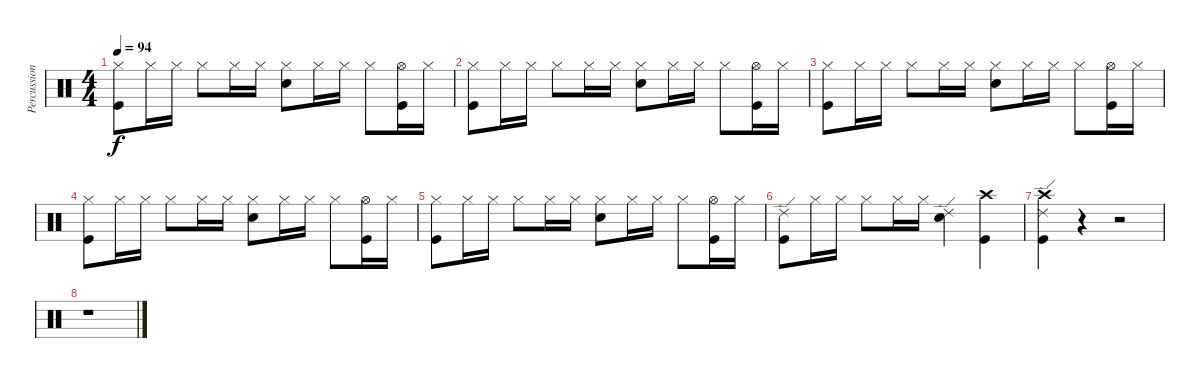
\track ("Percussions" "Percussion") {instrument percussion}
\staff {score}
\articulation defaults
\ts (4 4)
\tempo 94
\clef neutral
\ks c
("Hi-Hat (closed)" "Kick (hit)").8{dy f} "Hi-Hat (closed)".16 "Hi-Hat (closed)".16 "Hi-Hat (closed)".8 "Hi-Hat (closed)".16 "Hi-Hat (closed)".16 ("Hi-Hat (closed)" "Electric Snare (hit)").8 "Hi-Hat (closed)".16 "Hi-Hat (closed)".16 "Hi-Hat (closed)".8 ("Hi-Hat (open)" "Kick (hit)").16 "Hi-Hat (closed)".16 |
("Hi-Hat (closed)" "Kick (hit)").8 "Hi-Hat (closed)".16 "Hi-Hat (closed)".16 "Hi-Hat (closed)".8 "Hi-Hat (closed)".16 "Hi-Hat (closed)".16 ("Hi-Hat (closed)" "Electric Snare (hit)").8 "Hi-Hat (closed)".16 "Hi-Hat (closed)".16 "Hi-Hat (closed)".8 ("Hi-Hat (open)" "Kick (hit)").16 "Hi-Hat (closed)".16 |
("Hi-Hat (closed)" "Kick (hit)").8 "Hi-Hat (closed)".16 "Hi-Hat (closed)".16 "Hi-Hat (closed)".8 "Hi-Hat (closed)".16 "Hi-Hat (closed)".16 ("Hi-Hat (closed)" "Electric Snare (hit)").8 "Hi-Hat (closed)".16 "Hi-Hat (closed)".16 "Hi-Hat (closed)".8 ("Hi-Hat (open)" "Kick (hit)").16 "Hi-Hat (closed)".16 |
("Hi-Hat (closed)" "Kick (hit)").8 "Hi-Hat (closed)".16 "Hi-Hat (closed)".16 "Hi-Hat (closed)".8 "Hi-Hat (closed)".16 "Hi-Hat (closed)".16 ("Hi-Hat (closed)" "Electric Snare (hit)").8 "Hi-Hat (closed)".16 "Hi-Hat (closed)".16 "Hi-Hat (closed)".8 ("Hi-Hat (open)" "Kick (hit)").16 "Hi-Hat (closed)".16 |
("Hi-Hat (closed)" "Kick (hit)").8 "Hi-Hat (closed)".16 "Hi-Hat (closed)".16 "Hi-Hat (closed)".8 "Hi-Hat (closed)".16 "Hi-Hat (closed)".16 ("Hi-Hat (closed)" "Electric Snare (hit)").8 "Hi-Hat (closed)".16 "Hi-Hat (closed)".16 "Hi-Hat (closed)".8 ("Hi-Hat (open)" "Kick (hit)").16 "Hi-Hat (closed)".16 |
("Ride (edge) 2" "Kick (hit)").8 "Hi-Hat (closed)".16 "Hi-Hat (closed)".16 "Hi-Hat (closed)".8 "Hi-Hat (closed)".16 "Hi-Hat (closed)".16 ("Ride (edge) 2" "Electric Snare (hit)").4 ("Crash high (hit)" "Kick (hit)").4 |
("Crash high (hit)" "Ride (edge) 2" "Kick (hit)").4 r.4 r.2 |
r.1
